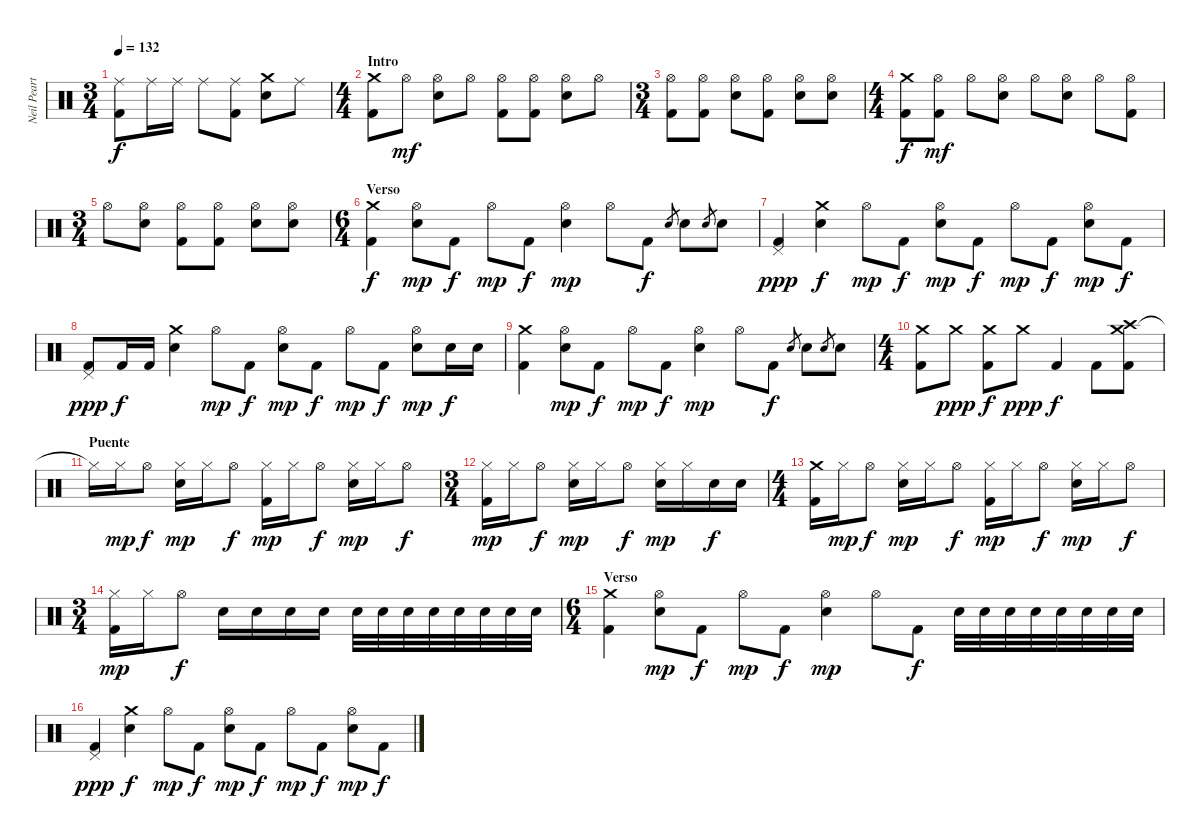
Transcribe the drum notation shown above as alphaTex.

\track ("Neil Peart" "Neil Peart") {instrument percussion}
\staff {score}
\articulation defaults
\ts (3 4)
\tempo 132
\clef neutral
\ks c
("Ride (middle)" "Kick (hit) 2").8{dy f} "Ride (middle)".16 "Ride (middle)".16 "Ride (middle)".8 ("Ride (middle)" "Kick (hit) 2").8 ("Crash medium (hit)" "Electric Snare (hit)").8 "Ride (middle)".8 |
\ts (4 4)
\section ("" "Intro")
("Crash medium (hit)" "Kick (hit) 2").8 "Hi-Hat (open)".8{dy mf} ("Hi-Hat (open)" "Electric Snare (hit)").8 "Hi-Hat (open)".8 ("Hi-Hat (open)" "Kick (hit) 2").8 ("Hi-Hat (open)" "Kick (hit) 2").8 ("Hi-Hat (open)" "Electric Snare (hit)").8 "Hi-Hat (open)".8 |
\ts (3 4)
("Hi-Hat (open)" "Kick (hit) 2").8 ("Hi-Hat (open)" "Kick (hit) 2").8 ("Hi-Hat (open)" "Electric Snare (hit)").8 ("Hi-Hat (open)" "Kick (hit) 2").8 ("Hi-Hat (open)" "Electric Snare (hit)").8 ("Hi-Hat (open)" "Electric Snare (hit)").8 |
\ts (4 4)
("Crash medium (hit)" "Kick (hit) 2").8{dy f} ("Hi-Hat (open)" "Kick (hit) 2").8{dy mf} "Hi-Hat (open)".8 ("Hi-Hat (open)" "Electric Snare (hit)").8 "Hi-Hat (open)".8 ("Hi-Hat (open)" "Electric Snare (hit)").8 "Hi-Hat (open)".8 ("Hi-Hat (open)" "Kick (hit) 2").8 |
\ts (3 4)
"Hi-Hat (open)".8 ("Hi-Hat (open)" "Electric Snare (hit)").8 ("Hi-Hat (open)" "Kick (hit) 2").8 ("Hi-Hat (open)" "Kick (hit) 2").8 ("Hi-Hat (open)" "Electric Snare (hit)").8 ("Hi-Hat (open)" "Electric Snare (hit)").8 |
\ts (6 4)
\section ("" "Verso")
("Crash medium (hit)" "Kick (hit) 2").4{dy f} ("Hi-Hat (open)" "Electric Snare (hit)").8{dy mp} "Kick (hit) 2".8{dy f} "Hi-Hat (open)".8{dy mp} "Kick (hit) 2".8{dy f} ("Hi-Hat (open)" "Electric Snare (hit)").4{dy mp} "Hi-Hat (open)".8 "Kick (hit) 2".8{dy f} "Electric Snare (hit)".8{gr} "Electric Snare (hit)".8 "Electric Snare (hit)".8{gr} "Electric Snare (hit)".8 |
("Pedal Hi-Hat (hit)" "Kick (hit) 2").4{dy ppp} ("Crash medium (hit)" "Electric Snare (hit)").4{dy f} "Hi-Hat (open)".8{dy mp} "Kick (hit) 2".8{dy f} ("Hi-Hat (open)" "Electric Snare (hit)").8{dy mp} "Kick (hit) 2".8{dy f} "Hi-Hat (open)".8{dy mp} "Kick (hit) 2".8{dy f} ("Hi-Hat (open)" "Electric Snare (hit)").8{dy mp} "Kick (hit) 2".8{dy f} |
("Pedal Hi-Hat (hit)" "Kick (hit) 2").8{dy ppp} "Kick (hit) 2".16{dy f} "Kick (hit) 2".16 ("Crash medium (hit)" "Electric Snare (hit)").4 "Hi-Hat (open)".8{dy mp} "Kick (hit) 2".8{dy f} ("Hi-Hat (open)" "Electric Snare (hit)").8{dy mp} "Kick (hit) 2".8{dy f} "Hi-Hat (open)".8{dy mp} "Kick (hit) 2".8{dy f} ("Hi-Hat (open)" "Electric Snare (hit)").8{dy mp} "Electric Snare (hit)".16{dy f} "Electric Snare (hit)".16 |
("Crash medium (hit)" "Kick (hit) 2").4 ("Hi-Hat (open)" "Electric Snare (hit)").8{dy mp} "Kick (hit) 2".8{dy f} "Hi-Hat (open)".8{dy mp} "Kick (hit) 2".8{dy f} ("Hi-Hat (open)" "Electric Snare (hit)").4{dy mp} "Hi-Hat (open)".8 "Kick (hit) 2".8{dy f} "Electric Snare (hit)".8{gr} "Electric Snare (hit)".8 "Electric Snare (hit)".8{gr} "Electric Snare (hit)".8 |
\ts (4 4)
("Crash medium (hit)" "Kick (hit) 2").8 "Crash medium (hit)".8{dy ppp} ("Crash medium (hit)" "Kick (hit) 2").8{dy f} "Crash medium (hit)".8{dy ppp} "Kick (hit) 2".4{dy f} "Kick (hit) 2".8 ("Crash medium (hit)" "Crash high (hit)" "Kick (hit) 2").8 |
\section ("" "Puente")
"Hi-Hat (closed)"{t}.16 "Hi-Hat (closed)".16{dy mp} "Hi-Hat (open)".8{dy f} ("Hi-Hat (closed)" "Electric Snare (hit)").16{dy mp} "Hi-Hat (closed)".16 "Hi-Hat (open)".8{dy f} ("Hi-Hat (closed)" "Kick (hit) 2").16{dy mp} "Hi-Hat (closed)".16 "Hi-Hat (open)".8{dy f} ("Hi-Hat (closed)" "Electric Snare (hit)").16{dy mp} "Hi-Hat (closed)".16 "Hi-Hat (open)".8{dy f} |
\ts (3 4)
("Hi-Hat (closed)" "Kick (hit) 2").16{dy mp} "Hi-Hat (closed)".16 "Hi-Hat (open)".8{dy f} ("Hi-Hat (closed)" "Electric Snare (hit)").16{dy mp} "Hi-Hat (closed)".16 "Hi-Hat (open)".8{dy f} ("Hi-Hat (closed)" "Electric Snare (hit)").16{dy mp} "Hi-Hat (closed)".16 "Electric Snare (hit)".16{dy f} "Electric Snare (hit)".16 |
\ts (4 4)
("Crash medium (hit)" "Kick (hit) 2").16 "Hi-Hat (closed)".16{dy mp} "Hi-Hat (open)".8{dy f} ("Hi-Hat (closed)" "Electric Snare (hit)").16{dy mp} "Hi-Hat (closed)".16 "Hi-Hat (open)".8{dy f} ("Hi-Hat (closed)" "Kick (hit) 2").16{dy mp} "Hi-Hat (closed)".16 "Hi-Hat (open)".8{dy f} ("Hi-Hat (closed)" "Electric Snare (hit)").16{dy mp} "Hi-Hat (closed)".16 "Hi-Hat (open)".8{dy f} |
\ts (3 4)
("Hi-Hat (closed)" "Kick (hit) 2").16{dy mp} "Hi-Hat (closed)".16 "Hi-Hat (open)".8{dy f} "Electric Snare (hit)".16 "Electric Snare (hit)".16 "Electric Snare (hit)".16 "Electric Snare (hit)".16 "Electric Snare (hit)".32 "Electric Snare (hit)".32 "Electric Snare (hit)".32 "Electric Snare (hit)".32 "Electric Snare (hit)".32 "Electric Snare (hit)".32 "Electric Snare (hit)".32 "Electric Snare (hit)".32 |
\ts (6 4)
\section ("" "Verso")
("Crash medium (hit)" "Kick (hit) 2").4 ("Hi-Hat (open)" "Electric Snare (hit)").8{dy mp} "Kick (hit) 2".8{dy f} "Hi-Hat (open)".8{dy mp} "Kick (hit) 2".8{dy f} ("Hi-Hat (open)" "Electric Snare (hit)").4{dy mp} "Hi-Hat (open)".8 "Kick (hit) 2".8{dy f} "Electric Snare (hit)".32 "Electric Snare (hit)".32 "Electric Snare (hit)".32 "Electric Snare (hit)".32 "Electric Snare (hit)".32 "Electric Snare (hit)".32 "Electric Snare (hit)".32 "Electric Snare (hit)".32 |
("Pedal Hi-Hat (hit)" "Kick (hit) 2").4{dy ppp} ("Crash medium (hit)" "Electric Snare (hit)").4{dy f} "Hi-Hat (open)".8{dy mp} "Kick (hit) 2".8{dy f} ("Hi-Hat (open)" "Electric Snare (hit)").8{dy mp} "Kick (hit) 2".8{dy f} "Hi-Hat (open)".8{dy mp} "Kick (hit) 2".8{dy f} ("Hi-Hat (open)" "Electric Snare (hit)").8{dy mp} "Kick (hit) 2".8{dy f}
